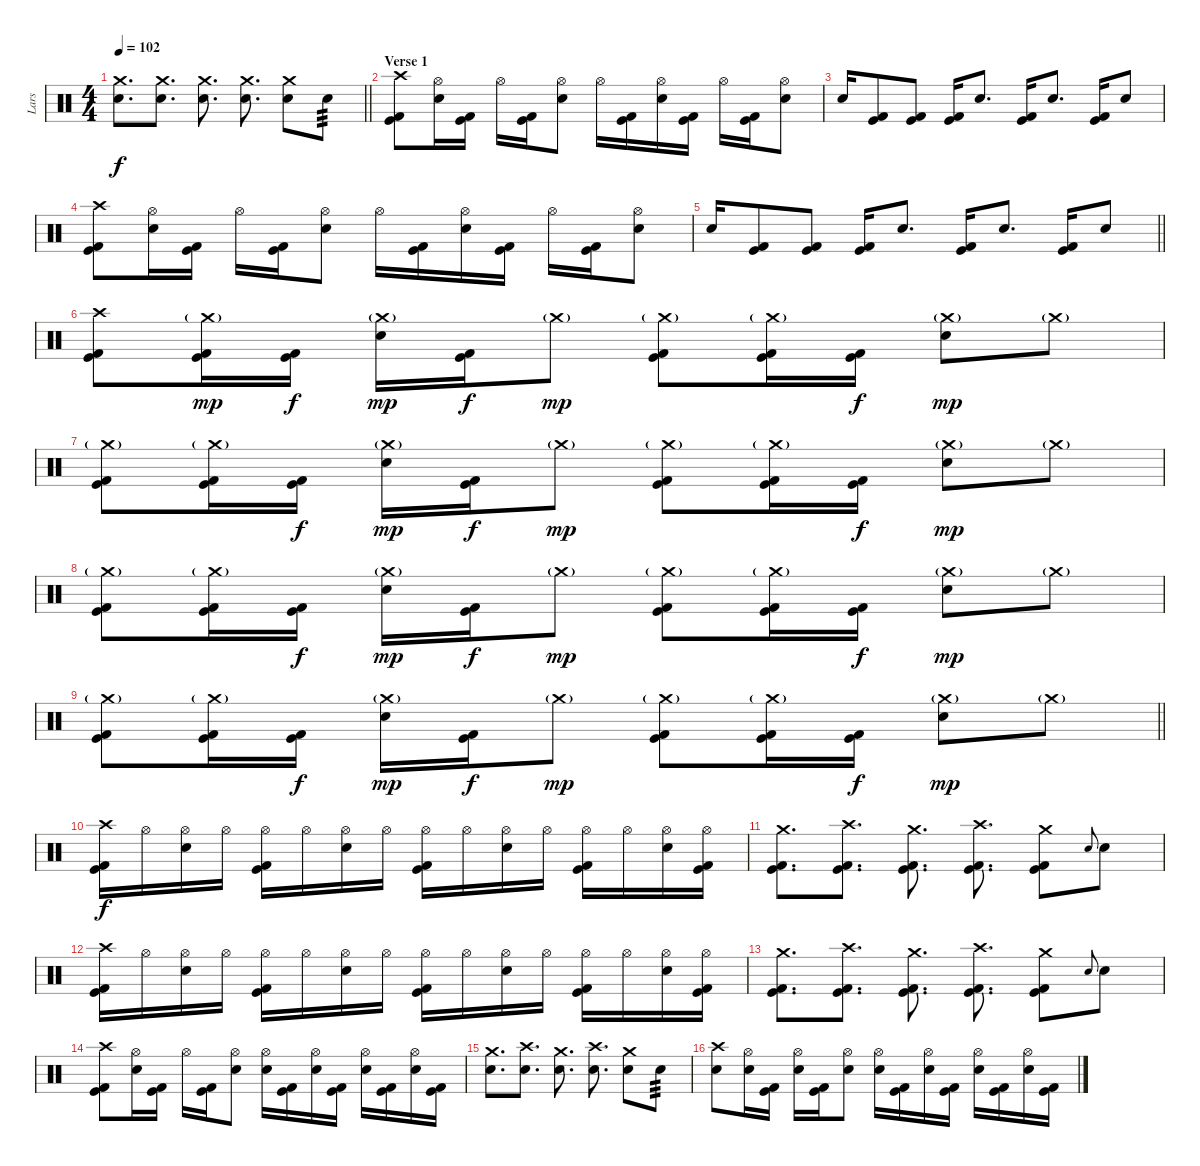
\track ("Lars" "Lars") {instrument percussion}
\staff {score}
\articulation defaults
\ts (4 4)
\tempo 102
\clef neutral
\barLineRight lightlight
\ks c
("Crash medium (hit)" "Electric Snare (hit)").8{d dy f} ("Crash medium (hit)" "Electric Snare (hit)").8{d} ("Crash medium (hit)" "Electric Snare (hit)").8{d} ("Crash medium (hit)" "Electric Snare (hit)").8{d} ("Crash medium (hit)" "Electric Snare (hit)").8 "Electric Snare (hit)".8{tp 3} |
\section ("" "Verse 1")
("Crash high (hit)" "Kick (hit)" "Kick (hit) 2").8 ("Hi-Hat (open)" "Electric Snare (hit)").16 ("Kick (hit)" "Kick (hit) 2").16 "Hi-Hat (open)".16 ("Kick (hit)" "Kick (hit) 2").16 ("Hi-Hat (open)" "Electric Snare (hit)").8 "Hi-Hat (open)".16 ("Kick (hit)" "Kick (hit) 2").16 ("Hi-Hat (open)" "Electric Snare (hit)").16 ("Kick (hit)" "Kick (hit) 2").16 "Hi-Hat (open)".16 ("Kick (hit)" "Kick (hit) 2").16 ("Hi-Hat (open)" "Electric Snare (hit)").8 |
"Electric Snare (hit)".16 ("Kick (hit)" "Kick (hit) 2").8 ("Kick (hit)" "Kick (hit) 2").8 ("Kick (hit)" "Kick (hit) 2").16 "Electric Snare (hit)".8{d} ("Kick (hit)" "Kick (hit) 2").16 "Electric Snare (hit)".8{d} ("Kick (hit)" "Kick (hit) 2").16 "Electric Snare (hit)".8 |
("Crash high (hit)" "Kick (hit)" "Kick (hit) 2").8 ("Hi-Hat (open)" "Electric Snare (hit)").16 ("Kick (hit)" "Kick (hit) 2").16 "Hi-Hat (open)".16 ("Kick (hit)" "Kick (hit) 2").16 ("Hi-Hat (open)" "Electric Snare (hit)").8 "Hi-Hat (open)".16 ("Kick (hit)" "Kick (hit) 2").16 ("Hi-Hat (open)" "Electric Snare (hit)").16 ("Kick (hit)" "Kick (hit) 2").16 "Hi-Hat (open)".16 ("Kick (hit)" "Kick (hit) 2").16 ("Hi-Hat (open)" "Electric Snare (hit)").8 |
\barLineRight lightlight "Electric Snare (hit)".16
("Kick (hit)" "Kick (hit) 2").8 ("Kick (hit)" "Kick (hit) 2").8 ("Kick (hit)" "Kick (hit) 2").16 "Electric Snare (hit)".8{d} ("Kick (hit)" "Kick (hit) 2").16 "Electric Snare (hit)".8{d} ("Kick (hit)" "Kick (hit) 2").16 "Electric Snare (hit)".8 |
\section ("" "")
("Crash high (hit)" "Kick (hit)" "Kick (hit) 2").8 ("Crash medium (hit)"{g} "Kick (hit)" "Kick (hit) 2").16{dy mp} ("Kick (hit)" "Kick (hit) 2").16{dy f} ("Crash medium (hit)"{g} "Electric Snare (hit)").16{dy mp} ("Kick (hit)" "Kick (hit) 2").16{dy f} "Crash medium (hit)"{g}.8{dy mp} ("Crash medium (hit)"{g} "Kick (hit)" "Kick (hit) 2").8 ("Crash medium (hit)"{g} "Kick (hit)" "Kick (hit) 2").16 ("Kick (hit)" "Kick (hit) 2").16{dy f} ("Crash medium (hit)"{g} "Electric Snare (hit)").8{dy mp} "Crash medium (hit)"{g}.8 |
("Crash medium (hit)"{g} "Kick (hit)" "Kick (hit) 2").8 ("Crash medium (hit)"{g} "Kick (hit)" "Kick (hit) 2").16 ("Kick (hit)" "Kick (hit) 2").16{dy f} ("Crash medium (hit)"{g} "Electric Snare (hit)").16{dy mp} ("Kick (hit)" "Kick (hit) 2").16{dy f} "Crash medium (hit)"{g}.8{dy mp} ("Crash medium (hit)"{g} "Kick (hit)" "Kick (hit) 2").8 ("Crash medium (hit)"{g} "Kick (hit)" "Kick (hit) 2").16 ("Kick (hit)" "Kick (hit) 2").16{dy f} ("Crash medium (hit)"{g} "Electric Snare (hit)").8{dy mp} "Crash medium (hit)"{g}.8 |
("Crash medium (hit)"{g} "Kick (hit)" "Kick (hit) 2").8 ("Crash medium (hit)"{g} "Kick (hit)" "Kick (hit) 2").16 ("Kick (hit)" "Kick (hit) 2").16{dy f} ("Crash medium (hit)"{g} "Electric Snare (hit)").16{dy mp} ("Kick (hit)" "Kick (hit) 2").16{dy f} "Crash medium (hit)"{g}.8{dy mp} ("Crash medium (hit)"{g} "Kick (hit)" "Kick (hit) 2").8 ("Crash medium (hit)"{g} "Kick (hit)" "Kick (hit) 2").16 ("Kick (hit)" "Kick (hit) 2").16{dy f} ("Crash medium (hit)"{g} "Electric Snare (hit)").8{dy mp} "Crash medium (hit)"{g}.8 |
\barLineRight lightlight
("Crash medium (hit)"{g} "Kick (hit)" "Kick (hit) 2").8 ("Crash medium (hit)"{g} "Kick (hit)" "Kick (hit) 2").16 ("Kick (hit)" "Kick (hit) 2").16{dy f} ("Crash medium (hit)"{g} "Electric Snare (hit)").16{dy mp} ("Kick (hit)" "Kick (hit) 2").16{dy f} "Crash medium (hit)"{g}.8{dy mp} ("Crash medium (hit)"{g} "Kick (hit)" "Kick (hit) 2").8 ("Crash medium (hit)"{g} "Kick (hit)" "Kick (hit) 2").16 ("Kick (hit)" "Kick (hit) 2").16{dy f} ("Crash medium (hit)"{g} "Electric Snare (hit)").8{dy mp} "Crash medium (hit)"{g}.8 |
\section ("" "")
("Crash high (hit)" "Kick (hit)" "Kick (hit) 2").16{dy f} "Hi-Hat (open)".16 ("Hi-Hat (open)" "Electric Snare (hit)").16 "Hi-Hat (open)".16 ("Hi-Hat (open)" "Kick (hit)" "Kick (hit) 2").16 "Hi-Hat (open)".16 ("Hi-Hat (open)" "Electric Snare (hit)").16 "Hi-Hat (open)".16 ("Hi-Hat (open)" "Kick (hit)" "Kick (hit) 2").16 "Hi-Hat (open)".16 ("Hi-Hat (open)" "Electric Snare (hit)").16 "Hi-Hat (open)".16 ("Hi-Hat (open)" "Kick (hit)" "Kick (hit) 2").16 "Hi-Hat (open)".16 ("Hi-Hat (open)" "Electric Snare (hit)").16 ("Hi-Hat (open)" "Kick (hit)" "Kick (hit) 2").16 |
("Crash medium (hit)" "Kick (hit)" "Kick (hit) 2").8{d} ("Crash high (hit)" "Kick (hit)" "Kick (hit) 2").8{d} ("Crash medium (hit)" "Kick (hit)" "Kick (hit) 2").8{d} ("Crash high (hit)" "Kick (hit)" "Kick (hit) 2").8{d} ("Crash medium (hit)" "Kick (hit)" "Kick (hit) 2").8 "Electric Snare (hit)".8{gr onbeat} "Electric Snare (hit)".8 |
("Crash high (hit)" "Kick (hit)" "Kick (hit) 2").16 "Hi-Hat (open)".16 ("Hi-Hat (open)" "Electric Snare (hit)").16 "Hi-Hat (open)".16 ("Hi-Hat (open)" "Kick (hit)" "Kick (hit) 2").16 "Hi-Hat (open)".16 ("Hi-Hat (open)" "Electric Snare (hit)").16 "Hi-Hat (open)".16 ("Hi-Hat (open)" "Kick (hit)" "Kick (hit) 2").16 "Hi-Hat (open)".16 ("Hi-Hat (open)" "Electric Snare (hit)").16 "Hi-Hat (open)".16 ("Hi-Hat (open)" "Kick (hit)" "Kick (hit) 2").16 "Hi-Hat (open)".16 ("Hi-Hat (open)" "Electric Snare (hit)").16 ("Hi-Hat (open)" "Kick (hit)" "Kick (hit) 2").16 |
("Crash medium (hit)" "Kick (hit)" "Kick (hit) 2").8{d} ("Crash high (hit)" "Kick (hit)" "Kick (hit) 2").8{d} ("Crash medium (hit)" "Kick (hit)" "Kick (hit) 2").8{d} ("Crash high (hit)" "Kick (hit)" "Kick (hit) 2").8{d} ("Crash medium (hit)" "Kick (hit)" "Kick (hit) 2").8 "Electric Snare (hit)".8{gr onbeat} "Electric Snare (hit)".8 |
("Crash high (hit)" "Kick (hit)" "Kick (hit) 2").8 ("Hi-Hat (open)" "Electric Snare (hit)").16 ("Kick (hit)" "Kick (hit) 2").16 "Hi-Hat (open)".16 ("Kick (hit)" "Kick (hit) 2").16 ("Hi-Hat (open)" "Electric Snare (hit)").8 ("Hi-Hat (open)" "Electric Snare (hit)").16 ("Kick (hit)" "Kick (hit) 2").16 ("Hi-Hat (open)" "Electric Snare (hit)").16 ("Kick (hit)" "Kick (hit) 2").16 ("Hi-Hat (open)" "Electric Snare (hit)").16 ("Kick (hit)" "Kick (hit) 2").16 ("Hi-Hat (open)" "Electric Snare (hit)").16 ("Kick (hit)" "Kick (hit) 2").16 |
("Crash medium (hit)" "Electric Snare (hit)").8{d} ("Crash high (hit)" "Electric Snare (hit)").8{d} ("Crash medium (hit)" "Electric Snare (hit)").8{d} ("Crash high (hit)" "Electric Snare (hit)").8{d} ("Crash medium (hit)" "Electric Snare (hit)").8 "Electric Snare (hit)".8{tp 3} |
("Crash high (hit)" "Electric Snare (hit)").8 ("Hi-Hat (open)" "Electric Snare (hit)").16 ("Kick (hit)" "Kick (hit) 2").16 ("Hi-Hat (open)" "Electric Snare (hit)").16 ("Kick (hit)" "Kick (hit) 2").16 ("Hi-Hat (open)" "Electric Snare (hit)").8 ("Hi-Hat (open)" "Electric Snare (hit)").16 ("Kick (hit)" "Kick (hit) 2").16 ("Hi-Hat (open)" "Electric Snare (hit)").16 ("Kick (hit)" "Kick (hit) 2").16 ("Hi-Hat (open)" "Electric Snare (hit)").16 ("Kick (hit)" "Kick (hit) 2").16 ("Hi-Hat (open)" "Electric Snare (hit)").16 ("Kick (hit)" "Kick (hit) 2").16
